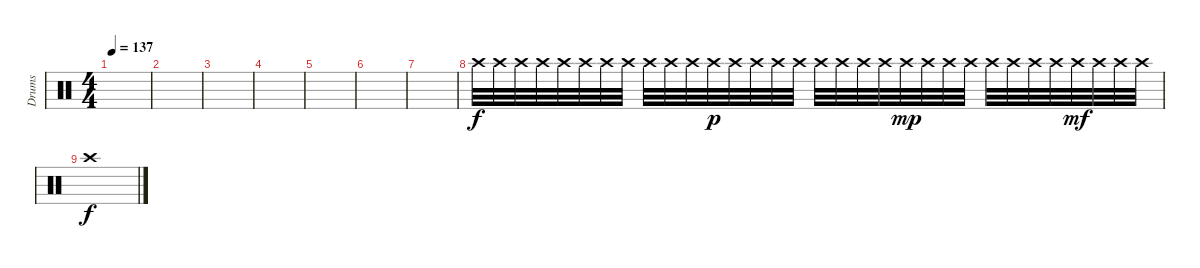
\track ("Drums" "Drums") {instrument percussion}
\staff {score}
\articulation defaults
\ts (4 4)
\tempo 137
\clef neutral
\ks c
|
|
|
|
|
|
|
"Crash high (hit)".32 "Crash high (hit)".32 "Crash high (hit)".32 "Crash high (hit)".32 "Crash high (hit)".32 "Crash high (hit)".32 "Crash high (hit)".32 "Crash high (hit)".32 "Crash high (hit)".32 "Crash high (hit)".32 "Crash high (hit)".32 "Crash high (hit)".32{dy p} "Crash high (hit)".32 "Crash high (hit)".32 "Crash high (hit)".32 "Crash high (hit)".32 "Crash high (hit)".32 "Crash high (hit)".32 "Crash high (hit)".32 "Crash high (hit)".32 "Crash high (hit)".32{dy mp} "Crash high (hit)".32 "Crash high (hit)".32 "Crash high (hit)".32 "Crash high (hit)".32 "Crash high (hit)".32 "Crash high (hit)".32 "Crash high (hit)".32 "Crash high (hit)".32{dy mf} "Crash high (hit)".32 "Crash high (hit)".32 "Crash high (hit)".32 |
"Crash high (hit)".1{dy f}
